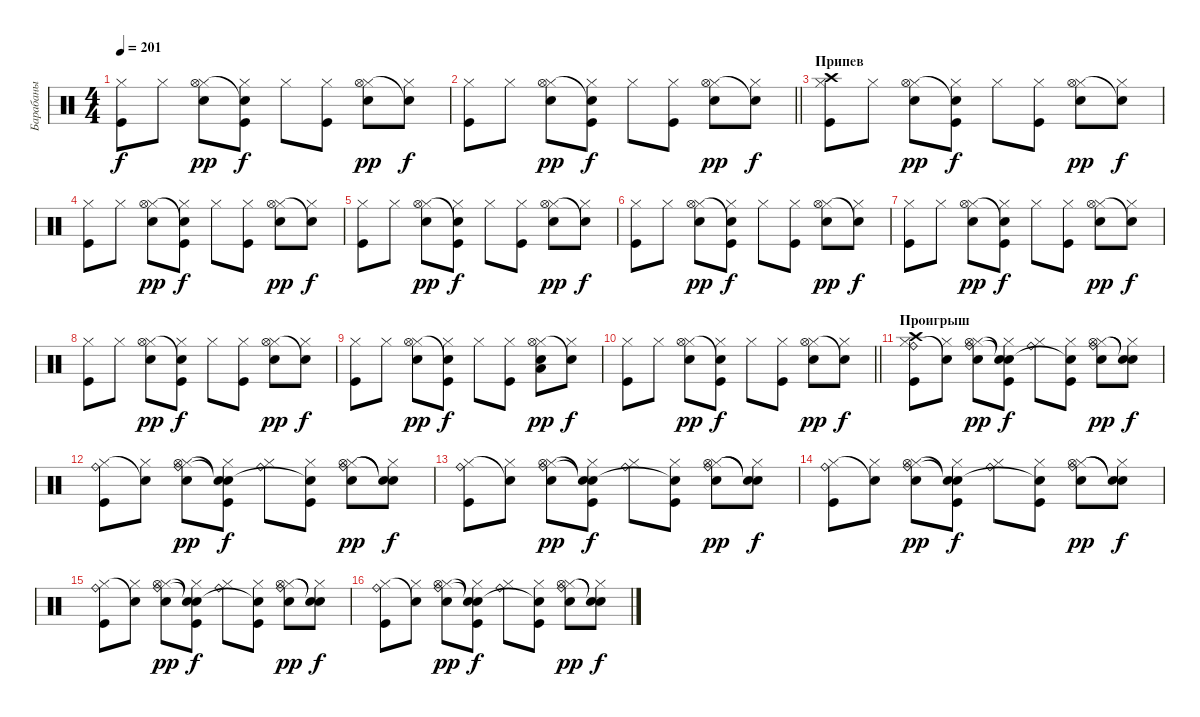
\track ("Барабаны" "Барабаны") {instrument percussion}
\staff {score}
\articulation defaults
\ts (4 4)
\tempo 201
\clef neutral
\ks c
("Kick (hit)" "Hi-Hat (closed)").8{dy f} "Hi-Hat (closed)".8 ("Snare (hit) 2" "Hi-Hat (closed)" "Hi-Hat (open)").8{dy pp} ("Kick (hit)" "Hi-Hat (closed)" "Snare (hit)"{t}).8{dy f} "Hi-Hat (closed)".8 ("Kick (hit)" "Hi-Hat (closed)").8 ("Snare (hit) 2" "Hi-Hat (closed)" "Hi-Hat (open)").8{dy pp} ("Hi-Hat (closed)" "Snare (hit)"{t}).8{dy f} |
\barLineRight lightlight
("Kick (hit)" "Hi-Hat (closed)").8 "Hi-Hat (closed)".8 ("Snare (hit) 2" "Hi-Hat (closed)" "Hi-Hat (open)").8{dy pp} ("Kick (hit)" "Hi-Hat (closed)" "Snare (hit)"{t}).8{dy f} "Hi-Hat (closed)".8 ("Kick (hit)" "Hi-Hat (closed)").8 ("Snare (hit) 2" "Hi-Hat (closed)" "Hi-Hat (open)").8{dy pp} ("Hi-Hat (closed)" "Snare (hit)"{t}).8{dy f} |
\section ("" "Припев")
("Kick (hit)" "Hi-Hat (closed)" "Crash high (hit)").8 "Hi-Hat (closed)".8 ("Snare (hit) 2" "Hi-Hat (closed)" "Hi-Hat (open)").8{dy pp} ("Kick (hit)" "Hi-Hat (closed)" "Snare (hit)"{t}).8{dy f} "Hi-Hat (closed)".8 ("Kick (hit)" "Hi-Hat (closed)").8 ("Snare (hit) 2" "Hi-Hat (closed)" "Hi-Hat (open)").8{dy pp} ("Hi-Hat (closed)" "Snare (hit)"{t}).8{dy f} |
("Kick (hit)" "Hi-Hat (closed)").8 "Hi-Hat (closed)".8 ("Snare (hit) 2" "Hi-Hat (closed)" "Hi-Hat (open)").8{dy pp} ("Kick (hit)" "Hi-Hat (closed)" "Snare (hit)"{t}).8{dy f} "Hi-Hat (closed)".8 ("Kick (hit)" "Hi-Hat (closed)").8 ("Snare (hit) 2" "Hi-Hat (closed)" "Hi-Hat (open)").8{dy pp} ("Hi-Hat (closed)" "Snare (hit)"{t}).8{dy f} |
("Kick (hit)" "Hi-Hat (closed)").8 "Hi-Hat (closed)".8 ("Snare (hit) 2" "Hi-Hat (closed)" "Hi-Hat (open)").8{dy pp} ("Kick (hit)" "Hi-Hat (closed)" "Snare (hit)"{t}).8{dy f} "Hi-Hat (closed)".8 ("Kick (hit)" "Hi-Hat (closed)").8 ("Snare (hit) 2" "Hi-Hat (closed)" "Hi-Hat (open)").8{dy pp} ("Hi-Hat (closed)" "Snare (hit)"{t}).8{dy f} |
("Kick (hit)" "Hi-Hat (closed)").8 "Hi-Hat (closed)".8 ("Snare (hit) 2" "Hi-Hat (closed)" "Hi-Hat (open)").8{dy pp} ("Kick (hit)" "Hi-Hat (closed)" "Snare (hit)"{t}).8{dy f} "Hi-Hat (closed)".8 ("Kick (hit)" "Hi-Hat (closed)").8 ("Snare (hit) 2" "Hi-Hat (closed)" "Hi-Hat (open)").8{dy pp} ("Hi-Hat (closed)" "Snare (hit)"{t}).8{dy f} |
("Kick (hit)" "Hi-Hat (closed)").8 "Hi-Hat (closed)".8 ("Snare (hit) 2" "Hi-Hat (closed)" "Hi-Hat (open)").8{dy pp} ("Kick (hit)" "Hi-Hat (closed)" "Snare (hit)"{t}).8{dy f} "Hi-Hat (closed)".8 ("Kick (hit)" "Hi-Hat (closed)").8 ("Snare (hit) 2" "Hi-Hat (closed)" "Hi-Hat (open)").8{dy pp} ("Hi-Hat (closed)" "Snare (hit)"{t}).8{dy f} |
("Kick (hit)" "Hi-Hat (closed)").8 "Hi-Hat (closed)".8 ("Snare (hit) 2" "Hi-Hat (closed)" "Hi-Hat (open)").8{dy pp} ("Kick (hit)" "Hi-Hat (closed)" "Snare (hit)"{t}).8{dy f} "Hi-Hat (closed)".8 ("Kick (hit)" "Hi-Hat (closed)").8 ("Snare (hit) 2" "Hi-Hat (closed)" "Hi-Hat (open)").8{dy pp} ("Hi-Hat (closed)" "Snare (hit)"{t}).8{dy f} |
("Kick (hit)" "Hi-Hat (closed)").8 "Hi-Hat (closed)".8 ("Snare (hit) 2" "Hi-Hat (closed)" "Hi-Hat (open)").8{dy pp} ("Kick (hit)" "Hi-Hat (closed)" "Snare (hit)"{t}).8{dy f} "Hi-Hat (closed)".8 ("Kick (hit)" "Hi-Hat (closed)").8 ("Snare (hit) 2" "Hi-Hat (closed)" "Low Floor Tom (hit)" "Hi-Hat (open)").8{dy pp} ("Hi-Hat (closed)" "Snare (hit)"{t}).8{dy f} |
\barLineRight lightlight
("Kick (hit)" "Hi-Hat (closed)").8 "Hi-Hat (closed)".8 ("Snare (hit) 2" "Hi-Hat (closed)" "Hi-Hat (open)").8{dy pp} ("Kick (hit)" "Hi-Hat (closed)" "Snare (hit)"{t}).8{dy f} "Hi-Hat (closed)".8 ("Kick (hit)" "Hi-Hat (closed)").8 ("Snare (hit) 2" "Hi-Hat (closed)" "Hi-Hat (open)").8{dy pp} ("Hi-Hat (closed)" "Snare (hit)"{t}).8{dy f} |
\section ("" "Проигрыш")
("Kick (hit)" "Hi-Hat (closed)" "Crash high (hit)" "Ride (bell)").8 ("Hi-Hat (closed)" "Snare (hit)"{t}).8 ("Snare (hit) 2" "Hi-Hat (closed)" "Hi-Hat (open)" "Ride (bell)").8{dy pp} ("Kick (hit)" "Hi-Hat (closed)" "Snare (hit)"{t} "Snare (hit)"{t}).8{dy f} ("Hi-Hat (closed)" "Ride (bell)").8 ("Kick (hit)" "Hi-Hat (closed)" "Snare (hit)"{t}).8 ("Snare (hit) 2" "Hi-Hat (closed)" "Hi-Hat (open)" "Ride (bell)").8{dy pp} ("Hi-Hat (closed)" "Snare (hit)"{t} "Snare (hit)"{t}).8{dy f} |
("Kick (hit)" "Hi-Hat (closed)" "Ride (bell)").8 ("Hi-Hat (closed)" "Snare (hit)"{t}).8 ("Snare (hit) 2" "Hi-Hat (closed)" "Hi-Hat (open)" "Ride (bell)").8{dy pp} ("Kick (hit)" "Hi-Hat (closed)" "Snare (hit)"{t} "Snare (hit)"{t}).8{dy f} ("Hi-Hat (closed)" "Ride (bell)").8 ("Kick (hit)" "Hi-Hat (closed)" "Snare (hit)"{t}).8 ("Snare (hit) 2" "Hi-Hat (closed)" "Hi-Hat (open)" "Ride (bell)").8{dy pp} ("Hi-Hat (closed)" "Snare (hit)"{t} "Snare (hit)"{t}).8{dy f} |
("Kick (hit)" "Hi-Hat (closed)" "Ride (bell)").8 ("Hi-Hat (closed)" "Snare (hit)"{t}).8 ("Snare (hit) 2" "Hi-Hat (closed)" "Hi-Hat (open)" "Ride (bell)").8{dy pp} ("Kick (hit)" "Hi-Hat (closed)" "Snare (hit)"{t} "Snare (hit)"{t}).8{dy f} ("Hi-Hat (closed)" "Ride (bell)").8 ("Kick (hit)" "Hi-Hat (closed)" "Snare (hit)"{t}).8 ("Snare (hit) 2" "Hi-Hat (closed)" "Hi-Hat (open)" "Ride (bell)").8{dy pp} ("Hi-Hat (closed)" "Snare (hit)"{t} "Snare (hit)"{t}).8{dy f} |
("Kick (hit)" "Hi-Hat (closed)" "Ride (bell)").8 ("Hi-Hat (closed)" "Snare (hit)"{t}).8 ("Snare (hit) 2" "Hi-Hat (closed)" "Hi-Hat (open)" "Ride (bell)").8{dy pp} ("Kick (hit)" "Hi-Hat (closed)" "Snare (hit)"{t} "Snare (hit)"{t}).8{dy f} ("Hi-Hat (closed)" "Ride (bell)").8 ("Kick (hit)" "Hi-Hat (closed)" "Snare (hit)"{t}).8 ("Snare (hit) 2" "Hi-Hat (closed)" "Hi-Hat (open)" "Ride (bell)").8{dy pp} ("Hi-Hat (closed)" "Snare (hit)"{t} "Snare (hit)"{t}).8{dy f} |
("Kick (hit)" "Hi-Hat (closed)" "Ride (bell)").8 ("Hi-Hat (closed)" "Snare (hit)"{t}).8 ("Snare (hit) 2" "Hi-Hat (closed)" "Hi-Hat (open)" "Ride (bell)").8{dy pp} ("Kick (hit)" "Hi-Hat (closed)" "Snare (hit)"{t} "Snare (hit)"{t}).8{dy f} ("Hi-Hat (closed)" "Ride (bell)").8 ("Kick (hit)" "Hi-Hat (closed)" "Snare (hit)"{t}).8 ("Snare (hit) 2" "Hi-Hat (closed)" "Hi-Hat (open)" "Ride (bell)").8{dy pp} ("Hi-Hat (closed)" "Snare (hit)"{t} "Snare (hit)"{t}).8{dy f} |
("Kick (hit)" "Hi-Hat (closed)" "Ride (bell)").8 ("Hi-Hat (closed)" "Snare (hit)"{t}).8 ("Snare (hit) 2" "Hi-Hat (closed)" "Hi-Hat (open)" "Ride (bell)").8{dy pp} ("Kick (hit)" "Hi-Hat (closed)" "Snare (hit)"{t} "Snare (hit)"{t}).8{dy f} ("Hi-Hat (closed)" "Ride (bell)").8 ("Kick (hit)" "Hi-Hat (closed)" "Snare (hit)"{t}).8 ("Snare (hit) 2" "Hi-Hat (closed)" "Hi-Hat (open)" "Ride (bell)").8{dy pp} ("Hi-Hat (closed)" "Snare (hit)"{t} "Snare (hit)"{t}).8{dy f}
